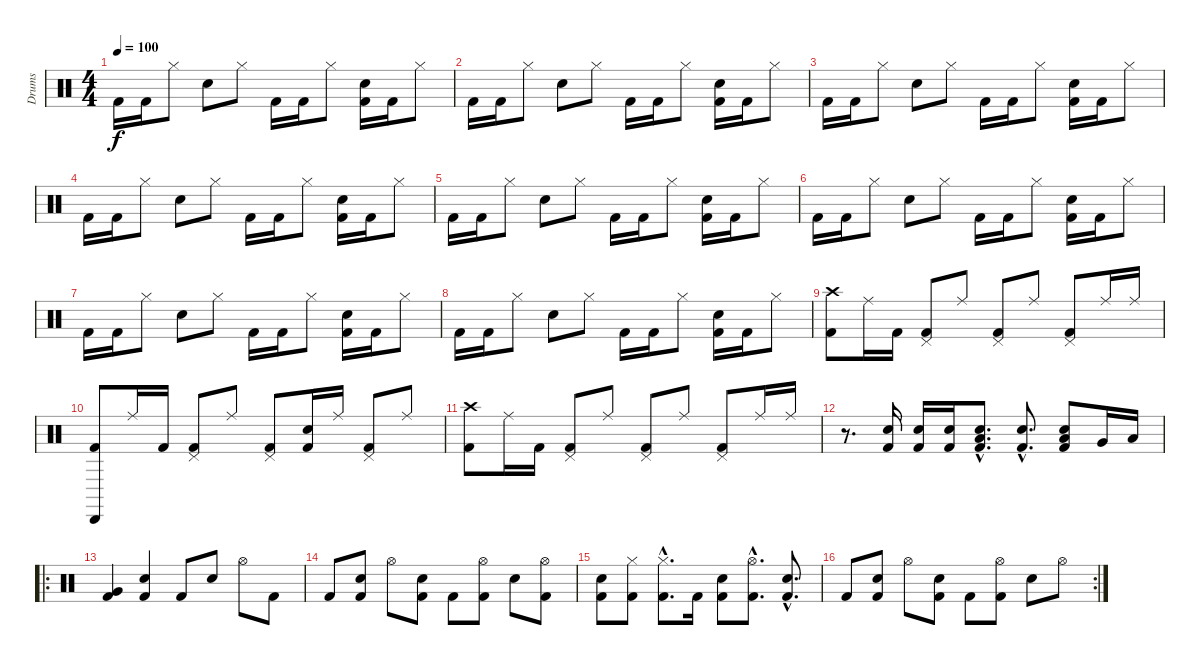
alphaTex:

\track ("Drums" "Drums") {instrument percussion}
\staff {score}
\articulation defaults
\ts (4 4)
\tempo 100
\clef neutral
\ks c "Kick (hit) 2".16{dy f} "Kick (hit) 2".16 "Hi-Hat (closed)".8 "Electric Snare (hit)".8 "Hi-Hat (closed)".8 "Kick (hit) 2".16 "Kick (hit) 2".16 "Hi-Hat (closed)".8
("Electric Snare (hit)" "Kick (hit) 2").16 "Kick (hit) 2".16 "Hi-Hat (closed)".8 |
"Kick (hit) 2".16 "Kick (hit) 2".16 "Hi-Hat (closed)".8 "Electric Snare (hit)".8 "Hi-Hat (closed)".8 "Kick (hit) 2".16 "Kick (hit) 2".16 "Hi-Hat (closed)".8 ("Electric Snare (hit)" "Kick (hit) 2").16 "Kick (hit) 2".16 "Hi-Hat (closed)".8 |
"Kick (hit) 2".16 "Kick (hit) 2".16 "Hi-Hat (closed)".8 "Electric Snare (hit)".8 "Hi-Hat (closed)".8 "Kick (hit) 2".16 "Kick (hit) 2".16 "Hi-Hat (closed)".8 ("Electric Snare (hit)" "Kick (hit) 2").16 "Kick (hit) 2".16 "Hi-Hat (closed)".8 |
"Kick (hit) 2".16 "Kick (hit) 2".16 "Hi-Hat (closed)".8 "Electric Snare (hit)".8 "Hi-Hat (closed)".8 "Kick (hit) 2".16 "Kick (hit) 2".16 "Hi-Hat (closed)".8 ("Electric Snare (hit)" "Kick (hit) 2").16 "Kick (hit) 2".16 "Hi-Hat (closed)".8 |
"Kick (hit) 2".16 "Kick (hit) 2".16 "Hi-Hat (closed)".8 "Electric Snare (hit)".8 "Hi-Hat (closed)".8 "Kick (hit) 2".16 "Kick (hit) 2".16 "Hi-Hat (closed)".8 ("Electric Snare (hit)" "Kick (hit) 2").16 "Kick (hit) 2".16 "Hi-Hat (closed)".8 |
"Kick (hit) 2".16 "Kick (hit) 2".16 "Hi-Hat (closed)".8 "Electric Snare (hit)".8 "Hi-Hat (closed)".8 "Kick (hit) 2".16 "Kick (hit) 2".16 "Hi-Hat (closed)".8 ("Electric Snare (hit)" "Kick (hit) 2").16 "Kick (hit) 2".16 "Hi-Hat (closed)".8 |
"Kick (hit) 2".16 "Kick (hit) 2".16 "Hi-Hat (closed)".8 "Electric Snare (hit)".8 "Hi-Hat (closed)".8 "Kick (hit) 2".16 "Kick (hit) 2".16 "Hi-Hat (closed)".8 ("Electric Snare (hit)" "Kick (hit) 2").16 "Kick (hit) 2".16 "Hi-Hat (closed)".8 |
"Kick (hit) 2".16 "Kick (hit) 2".16 "Hi-Hat (closed)".8 "Electric Snare (hit)".8 "Hi-Hat (closed)".8 "Kick (hit) 2".16 "Kick (hit) 2".16 "Hi-Hat (closed)".8 ("Electric Snare (hit)" "Kick (hit) 2").16 "Kick (hit) 2".16 "Hi-Hat (closed)".8 |
("Crash high (hit)" "Kick (hit) 2").8 "Ride (middle)".16 "Kick (hit) 2".16 ("Pedal Hi-Hat (hit)" "Kick (hit) 2").8 "Ride (middle)".8 ("Pedal Hi-Hat (hit)" "Kick (hit) 2").8 "Ride (middle)".8 ("Pedal Hi-Hat (hit)" "Kick (hit) 2").8 "Ride (middle)".16 "Ride (middle)".16 |
("Cabasa (hit)" "Kick (hit) 2").8 "Ride (middle)".16 "Kick (hit) 2".16 ("Pedal Hi-Hat (hit)" "Kick (hit) 2").8 "Ride (middle)".8 ("Pedal Hi-Hat (hit)" "Kick (hit) 2").8 ("Electric Snare (hit)" "Kick (hit) 2").16 "Ride (middle)".16 ("Pedal Hi-Hat (hit)" "Kick (hit) 2").8 "Ride (middle)".8 |
("Crash high (hit)" "Kick (hit) 2").8 "Ride (middle)".16 "Kick (hit) 2".16 ("Pedal Hi-Hat (hit)" "Kick (hit) 2").8 "Ride (middle)".8 ("Pedal Hi-Hat (hit)" "Kick (hit) 2").8 "Ride (middle)".8 ("Pedal Hi-Hat (hit)" "Kick (hit) 2").8 "Ride (middle)".16 "Ride (middle)".16 |
r.8{d} ("Electric Snare (hit)" "Kick (hit) 2").16 ("Electric Snare (hit)" "Kick (hit) 2").16 ("Electric Snare (hit)" "Kick (hit) 2").16 ("Electric Snare (hit)"{hac} "Low Floor Tom (hit)"{hac} "Kick (hit) 2"{hac}).8{d} ("Electric Snare (hit)"{hac} "Kick (hit) 2"{hac}).8{d} ("Electric Snare (hit)" "Low Floor Tom (hit)" "Kick (hit) 2").8 "Very Low Tom (hit)".16 "Low Floor Tom (hit)".16 |
\ro
("Very Low Tom (hit)" "Kick (hit) 2").4 ("Electric Snare (hit)" "Kick (hit) 2").4 "Kick (hit) 2".8 "Electric Snare (hit)".8 "Hi-Hat (open)".8 "Kick (hit) 2".8 |
"Kick (hit) 2".8 ("Electric Snare (hit)" "Kick (hit) 2").8 "Hi-Hat (open)".8 ("Electric Snare (hit)" "Kick (hit) 2").8 "Kick (hit) 2".8 ("Hi-Hat (open)" "Kick (hit) 2").8 "Electric Snare (hit)".8 ("Hi-Hat (open)" "Kick (hit) 2").8 |
("Electric Snare (hit)" "Kick (hit) 2").8 ("Hi-Hat (closed)" "Kick (hit) 2").8 ("Hi-Hat (closed)"{hac} "Kick (hit) 2"{hac}).8{d} "Kick (hit) 2".16 ("Electric Snare (hit)" "Kick (hit) 2").8 ("Hi-Hat (open)"{hac} "Kick (hit) 2"{hac}).8{d} ("Electric Snare (hit)"{hac} "Kick (hit) 2"{hac}).8{d} |
\rc 2 "Kick (hit) 2".8
("Electric Snare (hit)" "Kick (hit) 2").8 "Hi-Hat (open)".8 ("Electric Snare (hit)" "Kick (hit) 2").8 "Kick (hit) 2".8 ("Hi-Hat (open)" "Kick (hit) 2").8 "Electric Snare (hit)".8 "Hi-Hat (open)".8
